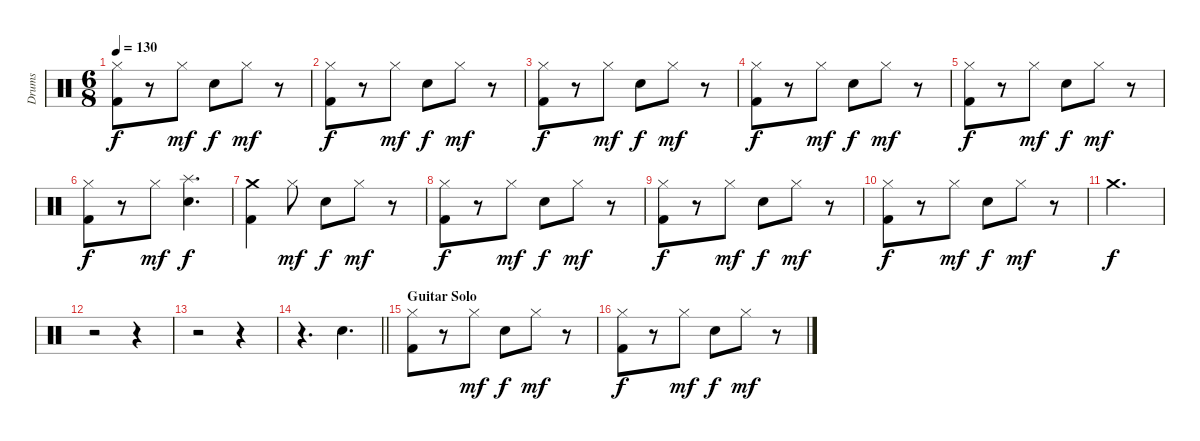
\track ("Drums" "Drums") {instrument percussion}
\staff {score}
\articulation defaults
\ts (6 8)
\tempo 130
\clef neutral
\ks c
("Hi-Hat (closed)" "Kick (hit) 2").8{dy f} r.8 "Hi-Hat (closed)".8{dy mf} "Snare (hit) 2".8{dy f} "Hi-Hat (closed)".8{dy mf} r.8 |
("Hi-Hat (closed)" "Kick (hit) 2").8{dy f} r.8 "Hi-Hat (closed)".8{dy mf} "Snare (hit) 2".8{dy f} "Hi-Hat (closed)".8{dy mf} r.8 |
("Hi-Hat (closed)" "Kick (hit) 2").8{dy f} r.8 "Hi-Hat (closed)".8{dy mf} "Snare (hit) 2".8{dy f} "Hi-Hat (closed)".8{dy mf} r.8 |
("Hi-Hat (closed)" "Kick (hit) 2").8{dy f} r.8 "Hi-Hat (closed)".8{dy mf} "Snare (hit) 2".8{dy f} "Hi-Hat (closed)".8{dy mf} r.8 |
("Hi-Hat (closed)" "Kick (hit) 2").8{dy f} r.8 "Hi-Hat (closed)".8{dy mf} "Snare (hit) 2".8{dy f} "Hi-Hat (closed)".8{dy mf} r.8 |
("Hi-Hat (closed)" "Kick (hit) 2").8{dy f} r.8 "Hi-Hat (closed)".8{dy mf} ("Splash (hit)" "Snare (hit) 2").4{d dy f} |
("Crash medium (hit)" "Kick (hit) 2").4 "Hi-Hat (closed)".8{dy mf} "Snare (hit) 2".8{dy f} "Hi-Hat (closed)".8{dy mf} r.8 |
("Hi-Hat (closed)" "Kick (hit) 2").8{dy f} r.8 "Hi-Hat (closed)".8{dy mf} "Snare (hit) 2".8{dy f} "Hi-Hat (closed)".8{dy mf} r.8 |
("Hi-Hat (closed)" "Kick (hit) 2").8{dy f} r.8 "Hi-Hat (closed)".8{dy mf} "Snare (hit) 2".8{dy f} "Hi-Hat (closed)".8{dy mf} r.8 |
("Hi-Hat (closed)" "Kick (hit) 2").8{dy f} r.8 "Hi-Hat (closed)".8{dy mf} "Snare (hit) 2".8{dy f} "Hi-Hat (closed)".8{dy mf} r.8 |
"Crash medium (hit)".2{d dy f} |
r.2 r.4 |
r.2 r.4 |
\barLineRight lightlight
r.4{d} "Snare (hit) 2".4{d} |
\section ("" "Guitar Solo")
("Hi-Hat (closed)" "Kick (hit) 2").8 r.8 "Hi-Hat (closed)".8{dy mf} "Snare (hit) 2".8{dy f} "Hi-Hat (closed)".8{dy mf} r.8 |
("Hi-Hat (closed)" "Kick (hit) 2").8{dy f} r.8 "Hi-Hat (closed)".8{dy mf} "Snare (hit) 2".8{dy f} "Hi-Hat (closed)".8{dy mf} r.8
